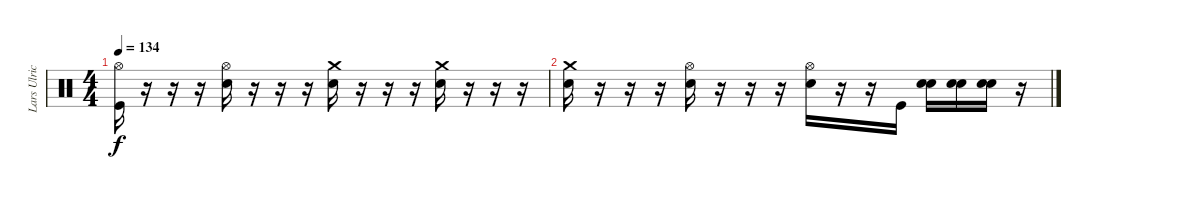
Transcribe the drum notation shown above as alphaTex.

\track ("Lars Ulrich" "Lars Ulric") {instrument percussion}
\staff {score}
\articulation defaults
\ts (4 4)
\tempo 134
\clef neutral
\ks c
("Hi-Hat (open)" "Kick (hit)").16{dy f} r.16 r.16 r.16 ("Hi-Hat (open)" "Snare (hit) 2").16 r.16 r.16 r.16 ("Crash medium (hit)" "Snare (hit) 2").16 r.16 r.16 r.16 ("Crash medium (hit)" "Snare (hit) 2").16 r.16 r.16 r.16 |
("Crash medium (hit)" "Snare (hit) 2").16 r.16 r.16 r.16 ("Hi-Hat (open)" "Snare (hit) 2").16 r.16 r.16 r.16 ("Hi-Hat (open)" "Snare (hit) 2").16 r.16 r.16 "Kick (hit)".16 ("Snare (hit) 2" "Snare (hit) 2").16 ("Snare (hit) 2" "Snare (hit) 2").16 ("Snare (hit) 2" "Snare (hit) 2").16 r.16
